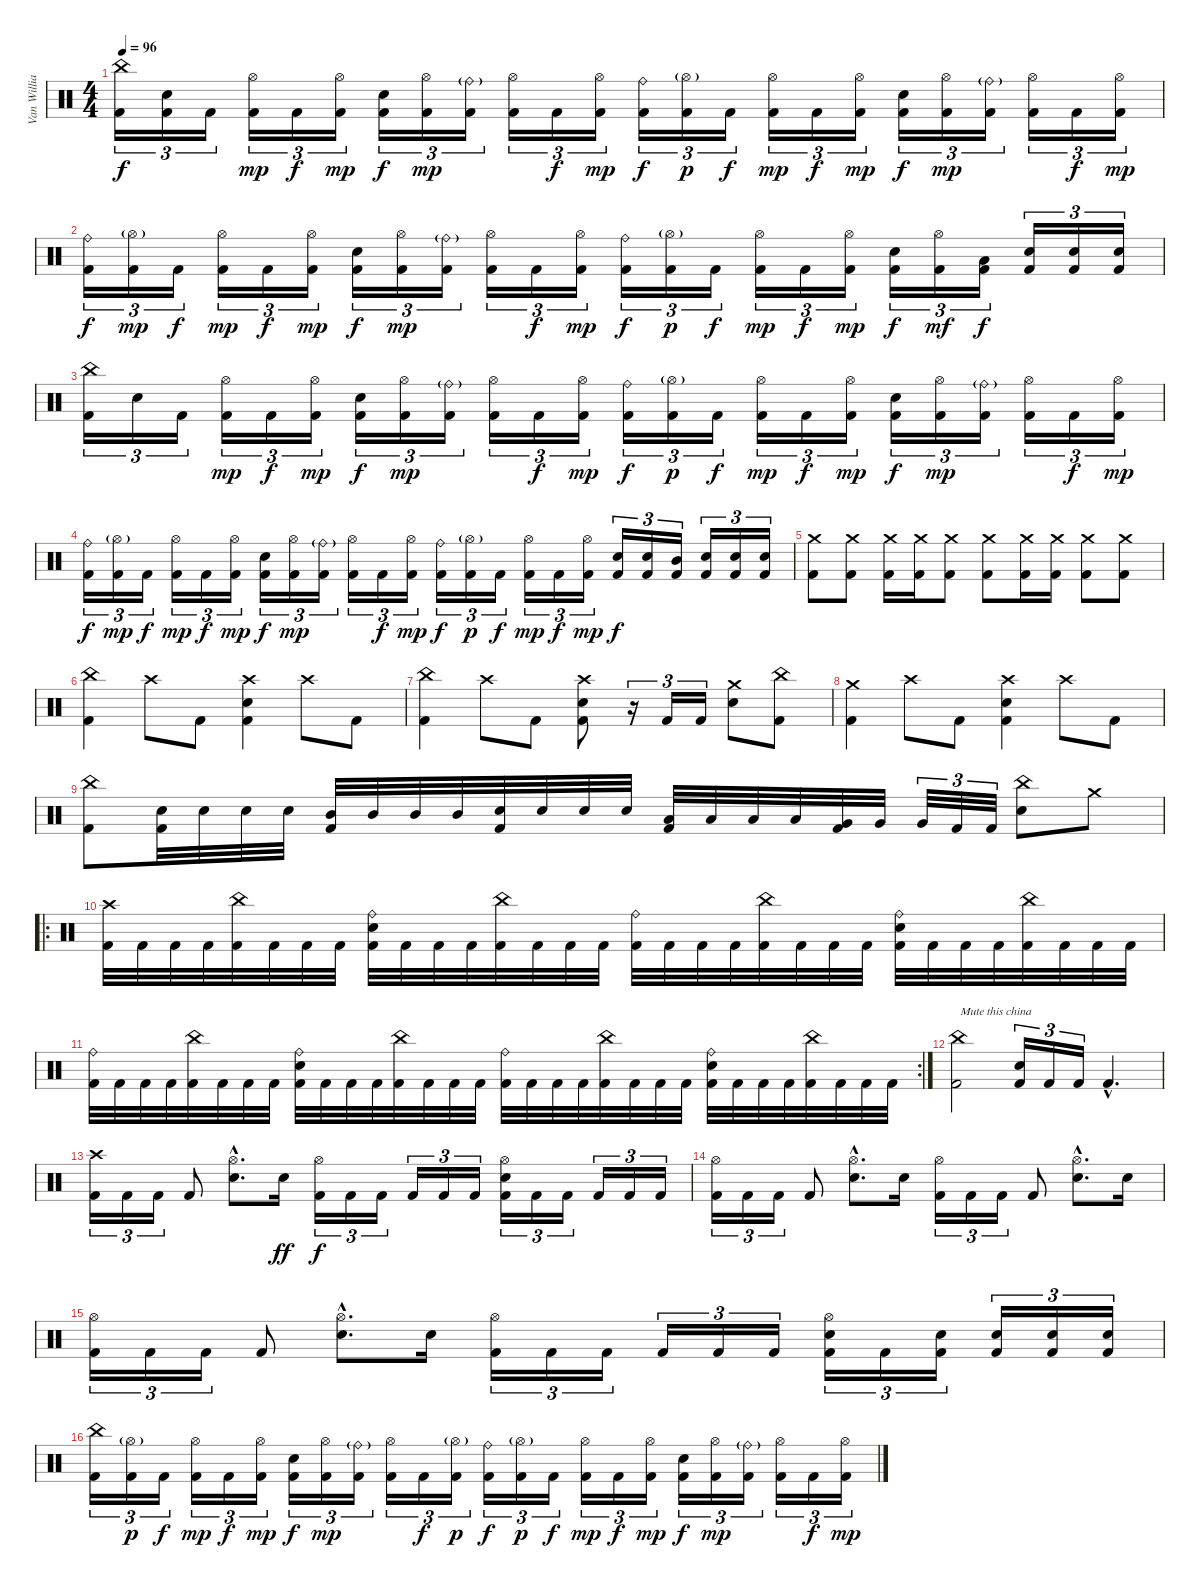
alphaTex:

\track ("Van Williams" "Van Willia") {instrument percussion}
\staff {score}
\articulation defaults
\ts (4 4)
\tempo 96
\clef neutral
\ks c
("China (hit)" "Kick (hit) 2").16{tu (3 2) dy f} ("Electric Snare (hit)" "Kick (hit) 2").16{tu (3 2)} "Kick (hit) 2".16{tu (3 2)} ("Hi-Hat (open)" "Kick (hit) 2").16{tu (3 2) dy mp} "Kick (hit) 2".16{tu (3 2) dy f} ("Hi-Hat (open)" "Kick (hit) 2").16{tu (3 2) dy mp} ("Electric Snare (hit)" "Kick (hit) 2").16{tu (3 2) dy f} ("Hi-Hat (open)" "Kick (hit) 2").16{tu (3 2) dy mp} ("Ride (bell)"{g} "Kick (hit) 2").16{tu (3 2)} ("Hi-Hat (open)" "Kick (hit) 2").16{tu (3 2)} "Kick (hit) 2".16{tu (3 2) dy f} ("Hi-Hat (open)" "Kick (hit) 2").16{tu (3 2) dy mp} ("Ride (bell)" "Kick (hit) 2").16{tu (3 2) dy f} ("Hi-Hat (open)"{g} "Kick (hit) 2").16{tu (3 2) dy p} "Kick (hit) 2".16{tu (3 2) dy f} ("Hi-Hat (open)" "Kick (hit) 2").16{tu (3 2) dy mp} "Kick (hit) 2".16{tu (3 2) dy f} ("Hi-Hat (open)" "Kick (hit) 2").16{tu (3 2) dy mp} ("Electric Snare (hit)" "Kick (hit) 2").16{tu (3 2) dy f} ("Hi-Hat (open)" "Kick (hit) 2").16{tu (3 2) dy mp} ("Ride (bell)"{g} "Kick (hit) 2").16{tu (3 2)} ("Hi-Hat (open)" "Kick (hit) 2").16{tu (3 2)} "Kick (hit) 2".16{tu (3 2) dy f} ("Hi-Hat (open)" "Kick (hit) 2").16{tu (3 2) dy mp} |
("Ride (bell)" "Kick (hit) 2").16{tu (3 2) dy f} ("Hi-Hat (open)"{g} "Kick (hit) 2").16{tu (3 2) dy mp} "Kick (hit) 2".16{tu (3 2) dy f} ("Hi-Hat (open)" "Kick (hit) 2").16{tu (3 2) dy mp} "Kick (hit) 2".16{tu (3 2) dy f} ("Hi-Hat (open)" "Kick (hit) 2").16{tu (3 2) dy mp} ("Electric Snare (hit)" "Kick (hit) 2").16{tu (3 2) dy f} ("Hi-Hat (open)" "Kick (hit) 2").16{tu (3 2) dy mp} ("Ride (bell)"{g} "Kick (hit) 2").16{tu (3 2)} ("Hi-Hat (open)" "Kick (hit) 2").16{tu (3 2)} "Kick (hit) 2".16{tu (3 2) dy f} ("Hi-Hat (open)" "Kick (hit) 2").16{tu (3 2) dy mp} ("Ride (bell)" "Kick (hit) 2").16{tu (3 2) dy f} ("Hi-Hat (open)"{g} "Kick (hit) 2").16{tu (3 2) dy p} "Kick (hit) 2".16{tu (3 2) dy f} ("Hi-Hat (open)" "Kick (hit) 2").16{tu (3 2) dy mp} "Kick (hit) 2".16{tu (3 2) dy f} ("Hi-Hat (open)" "Kick (hit) 2").16{tu (3 2) dy mp} ("Electric Snare (hit)" "Kick (hit) 2").16{tu (3 2) dy f} ("Hi-Hat (open)" "Kick (hit) 2").16{tu (3 2) dy mf} ("Low Tom (hit)" "Kick (hit) 2").16{tu (3 2) dy f} ("Electric Snare (hit)" "Kick (hit) 2").16{tu (3 2)} ("Electric Snare (hit)" "Kick (hit) 2").16{tu (3 2)} ("Electric Snare (hit)" "Kick (hit) 2").16{tu (3 2)} |
("China (hit)" "Kick (hit) 2").16{tu (3 2)} "Electric Snare (hit)".16{tu (3 2)} "Kick (hit) 2".16{tu (3 2)} ("Hi-Hat (open)" "Kick (hit) 2").16{tu (3 2) dy mp} "Kick (hit) 2".16{tu (3 2) dy f} ("Hi-Hat (open)" "Kick (hit) 2").16{tu (3 2) dy mp} ("Electric Snare (hit)" "Kick (hit) 2").16{tu (3 2) dy f} ("Hi-Hat (open)" "Kick (hit) 2").16{tu (3 2) dy mp} ("Ride (bell)"{g} "Kick (hit) 2").16{tu (3 2)} ("Hi-Hat (open)" "Kick (hit) 2").16{tu (3 2)} "Kick (hit) 2".16{tu (3 2) dy f} ("Hi-Hat (open)" "Kick (hit) 2").16{tu (3 2) dy mp} ("Ride (bell)" "Kick (hit) 2").16{tu (3 2) dy f} ("Hi-Hat (open)"{g} "Kick (hit) 2").16{tu (3 2) dy p} "Kick (hit) 2".16{tu (3 2) dy f} ("Hi-Hat (open)" "Kick (hit) 2").16{tu (3 2) dy mp} "Kick (hit) 2".16{tu (3 2) dy f} ("Hi-Hat (open)" "Kick (hit) 2").16{tu (3 2) dy mp} ("Electric Snare (hit)" "Kick (hit) 2").16{tu (3 2) dy f} ("Hi-Hat (open)" "Kick (hit) 2").16{tu (3 2) dy mp} ("Ride (bell)"{g} "Kick (hit) 2").16{tu (3 2)} ("Hi-Hat (open)" "Kick (hit) 2").16{tu (3 2)} "Kick (hit) 2".16{tu (3 2) dy f} ("Hi-Hat (open)" "Kick (hit) 2").16{tu (3 2) dy mp} |
("Ride (bell)" "Kick (hit) 2").16{tu (3 2) dy f} ("Hi-Hat (open)"{g} "Kick (hit) 2").16{tu (3 2) dy mp} "Kick (hit) 2".16{tu (3 2) dy f} ("Hi-Hat (open)" "Kick (hit) 2").16{tu (3 2) dy mp} "Kick (hit) 2".16{tu (3 2) dy f} ("Hi-Hat (open)" "Kick (hit) 2").16{tu (3 2) dy mp} ("Electric Snare (hit)" "Kick (hit) 2").16{tu (3 2) dy f} ("Hi-Hat (open)" "Kick (hit) 2").16{tu (3 2) dy mp} ("Ride (bell)"{g} "Kick (hit) 2").16{tu (3 2)} ("Hi-Hat (open)" "Kick (hit) 2").16{tu (3 2)} "Kick (hit) 2".16{tu (3 2) dy f} ("Hi-Hat (open)" "Kick (hit) 2").16{tu (3 2) dy mp} ("Ride (bell)" "Kick (hit) 2").16{tu (3 2) dy f} ("Hi-Hat (open)"{g} "Kick (hit) 2").16{tu (3 2) dy p} "Kick (hit) 2".16{tu (3 2) dy f} ("Hi-Hat (open)" "Kick (hit) 2").16{tu (3 2) dy mp} "Kick (hit) 2".16{tu (3 2) dy f} ("Hi-Hat (open)" "Kick (hit) 2").16{tu (3 2) dy mp} ("Electric Snare (hit)" "Kick (hit) 2").16{tu (3 2) dy f} ("Electric Snare (hit)" "Kick (hit) 2").16{tu (3 2)} ("Mid Tom (hit)" "Kick (hit) 2").16{tu (3 2)} ("Electric Snare (hit)" "Kick (hit) 2").16{tu (3 2)} ("Electric Snare (hit)" "Kick (hit) 2").16{tu (3 2)} ("Electric Snare (hit)" "Kick (hit) 2").16{tu (3 2)} |
\section ("" "")
("Crash medium (hit)" "Kick (hit) 2").8 ("Crash medium (hit)" "Kick (hit) 2").8 ("Crash medium (hit)" "Kick (hit) 2").16 ("Crash medium (hit)" "Kick (hit) 2").16 ("Crash medium (hit)" "Kick (hit) 2").8 ("Crash medium (hit)" "Kick (hit) 2").8 ("Crash medium (hit)" "Kick (hit) 2").16 ("Crash medium (hit)" "Kick (hit) 2").16 ("Crash medium (hit)" "Kick (hit) 2").8 ("Crash medium (hit)" "Kick (hit) 2").8 |
("China (hit)" "Kick (hit) 2").4 "Crash high (hit)".8 "Kick (hit) 2".8 ("Crash high (hit)" "Electric Snare (hit)" "Kick (hit) 2").4 "Crash high (hit)".8 "Kick (hit) 2".8 |
("China (hit)" "Kick (hit) 2").4 "Crash high (hit)".8 "Kick (hit) 2".8 ("Crash high (hit)" "Electric Snare (hit)" "Kick (hit) 2").8 r.16{tu (3 2)} "Kick (hit) 2".16{tu (3 2)} "Kick (hit) 2".16{tu (3 2)} ("Crash medium (hit)" "Electric Snare (hit)").8 ("China (hit)" "Kick (hit) 2").8 |
("Crash medium (hit)" "Kick (hit) 2").4 "Crash high (hit)".8 "Kick (hit) 2".8 ("Crash high (hit)" "Electric Snare (hit)" "Kick (hit) 2").4 "Crash high (hit)".8 "Kick (hit) 2".8 |
("China (hit)" "Kick (hit) 2").8 ("Electric Snare (hit)" "Kick (hit) 2").32 "Electric Snare (hit)".32 "Electric Snare (hit)".32 "Electric Snare (hit)".32 ("Mid Tom (hit)" "Kick (hit) 2").32 "Mid Tom (hit)".32 "Mid Tom (hit)".32 "Mid Tom (hit)".32 ("Electric Snare (hit)" "Kick (hit) 2").32 "Electric Snare (hit)".32 "Electric Snare (hit)".32 "Electric Snare (hit)".32 ("Low Tom (hit)" "Kick (hit) 2").32 "Low Tom (hit)".32 "Low Tom (hit)".32 "Low Tom (hit)".32 ("Very Low Tom (hit)" "Kick (hit) 2").32 "Very Low Tom (hit)".32 "Very Low Tom (hit)".32{tu (3 2)} "Kick (hit) 2".32{tu (3 2)} "Kick (hit) 2".32{tu (3 2)} ("China (hit)" "Electric Snare (hit)").8 "Crash medium (hit)".8 |
\ro
\section ("" "")
("Crash high (hit)" "Kick (hit) 2").32 "Kick (hit) 2".32 "Kick (hit) 2".32 "Kick (hit) 2".32 ("China (hit)" "Kick (hit) 2").32 "Kick (hit) 2".32 "Kick (hit) 2".32 "Kick (hit) 2".32 ("Ride (bell)" "Electric Snare (hit)" "Kick (hit) 2").32 "Kick (hit) 2".32 "Kick (hit) 2".32 "Kick (hit) 2".32 ("China (hit)" "Kick (hit) 2").32 "Kick (hit) 2".32 "Kick (hit) 2".32 "Kick (hit) 2".32 ("Ride (bell)" "Kick (hit) 2").32 "Kick (hit) 2".32 "Kick (hit) 2".32 "Kick (hit) 2".32 ("China (hit)" "Kick (hit) 2").32 "Kick (hit) 2".32 "Kick (hit) 2".32 "Kick (hit) 2".32 ("Ride (bell)" "Electric Snare (hit)" "Kick (hit) 2").32 "Kick (hit) 2".32 "Kick (hit) 2".32 "Kick (hit) 2".32 ("China (hit)" "Kick (hit) 2").32 "Kick (hit) 2".32 "Kick (hit) 2".32 "Kick (hit) 2".32 |
\rc 2
("Ride (bell)" "Kick (hit) 2").32 "Kick (hit) 2".32 "Kick (hit) 2".32 "Kick (hit) 2".32 ("China (hit)" "Kick (hit) 2").32 "Kick (hit) 2".32 "Kick (hit) 2".32 "Kick (hit) 2".32 ("Ride (bell)" "Electric Snare (hit)" "Kick (hit) 2").32 "Kick (hit) 2".32 "Kick (hit) 2".32 "Kick (hit) 2".32 ("China (hit)" "Kick (hit) 2").32 "Kick (hit) 2".32 "Kick (hit) 2".32 "Kick (hit) 2".32 ("Ride (bell)" "Kick (hit) 2").32 "Kick (hit) 2".32 "Kick (hit) 2".32 "Kick (hit) 2".32 ("China (hit)" "Kick (hit) 2").32 "Kick (hit) 2".32 "Kick (hit) 2".32 "Kick (hit) 2".32 ("Ride (bell)" "Electric Snare (hit)" "Kick (hit) 2").32 "Kick (hit) 2".32 "Kick (hit) 2".32 "Kick (hit) 2".32 ("China (hit)" "Kick (hit) 2").32 "Kick (hit) 2".32 "Kick (hit) 2".32 "Kick (hit) 2".32 |
\section ("" "")
("China (hit)" "Kick (hit) 2").2{txt "Mute this china"} ("Electric Snare (hit)" "Kick (hit) 2").16{tu (3 2)} "Kick (hit) 2".16{tu (3 2)} "Kick (hit) 2".16{tu (3 2)} "Kick (hit) 2"{hac}.4{d} |
("Crash high (hit)" "Kick (hit) 2").16{tu (3 2)} "Kick (hit) 2".16{tu (3 2)} "Kick (hit) 2".16{tu (3 2)} "Kick (hit) 2".8 ("Hi-Hat (open)"{hac} "Electric Snare (hit)"{hac}).8{d} "Electric Snare (hit)".16{dy ff} ("Hi-Hat (open)" "Kick (hit) 2").16{tu (3 2) dy f} "Kick (hit) 2".16{tu (3 2)} "Kick (hit) 2".16{tu (3 2)} "Kick (hit) 2".16{tu (3 2)} "Kick (hit) 2".16{tu (3 2)} "Kick (hit) 2".16{tu (3 2)} ("Hi-Hat (open)" "Electric Snare (hit)" "Kick (hit) 2").16{tu (3 2)} "Kick (hit) 2".16{tu (3 2)} "Kick (hit) 2".16{tu (3 2)} "Kick (hit) 2".16{tu (3 2)} "Kick (hit) 2".16{tu (3 2)} "Kick (hit) 2".16{tu (3 2)} |
("Hi-Hat (open)" "Kick (hit) 2").16{tu (3 2)} "Kick (hit) 2".16{tu (3 2)} "Kick (hit) 2".16{tu (3 2)} "Kick (hit) 2".8 ("Hi-Hat (open)"{hac} "Electric Snare (hit)"{hac}).8{d} "Electric Snare (hit)".16 ("Hi-Hat (open)" "Kick (hit) 2").16{tu (3 2)} "Kick (hit) 2".16{tu (3 2)} "Kick (hit) 2".16{tu (3 2)} "Kick (hit) 2".8 ("Hi-Hat (open)"{hac} "Electric Snare (hit)"{hac}).8{d} "Electric Snare (hit)".16 |
("Hi-Hat (open)" "Kick (hit) 2").16{tu (3 2)} "Kick (hit) 2".16{tu (3 2)} "Kick (hit) 2".16{tu (3 2)} "Kick (hit) 2".8 ("Hi-Hat (open)"{hac} "Electric Snare (hit)"{hac}).8{d} "Electric Snare (hit)".16 ("Hi-Hat (open)" "Kick (hit) 2").16{tu (3 2)} "Kick (hit) 2".16{tu (3 2)} "Kick (hit) 2".16{tu (3 2)} "Kick (hit) 2".16{tu (3 2)} "Kick (hit) 2".16{tu (3 2)} "Kick (hit) 2".16{tu (3 2)} ("Hi-Hat (open)" "Electric Snare (hit)" "Kick (hit) 2").16{tu (3 2)} "Kick (hit) 2".16{tu (3 2)} ("Electric Snare (hit)" "Kick (hit) 2").16{tu (3 2)} ("Electric Snare (hit)" "Kick (hit) 2").16{tu (3 2)} ("Electric Snare (hit)" "Kick (hit) 2").16{tu (3 2)} ("Electric Snare (hit)" "Kick (hit) 2").16{tu (3 2)} |
\section ("" "")
("China (hit)" "Kick (hit) 2").16{tu (3 2)} ("Hi-Hat (open)"{g} "Kick (hit) 2").16{tu (3 2) dy p} "Kick (hit) 2".16{tu (3 2) dy f} ("Hi-Hat (open)" "Kick (hit) 2").16{tu (3 2) dy mp} "Kick (hit) 2".16{tu (3 2) dy f} ("Hi-Hat (open)" "Kick (hit) 2").16{tu (3 2) dy mp} ("Electric Snare (hit)" "Kick (hit) 2").16{tu (3 2) dy f} ("Hi-Hat (open)" "Kick (hit) 2").16{tu (3 2) dy mp} ("Ride (bell)"{g} "Kick (hit) 2").16{tu (3 2)} ("Hi-Hat (open)" "Kick (hit) 2").16{tu (3 2)} "Kick (hit) 2".16{tu (3 2) dy f} ("Hi-Hat (open)"{g} "Kick (hit) 2").16{tu (3 2) dy p} ("Ride (bell)" "Kick (hit) 2").16{tu (3 2) dy f} ("Hi-Hat (open)"{g} "Kick (hit) 2").16{tu (3 2) dy p} "Kick (hit) 2".16{tu (3 2) dy f} ("Hi-Hat (open)" "Kick (hit) 2").16{tu (3 2) dy mp} "Kick (hit) 2".16{tu (3 2) dy f} ("Hi-Hat (open)" "Kick (hit) 2").16{tu (3 2) dy mp} ("Electric Snare (hit)" "Kick (hit) 2").16{tu (3 2) dy f} ("Hi-Hat (open)" "Kick (hit) 2").16{tu (3 2) dy mp} ("Ride (bell)"{g} "Kick (hit) 2").16{tu (3 2)} ("Hi-Hat (open)" "Kick (hit) 2").16{tu (3 2)} "Kick (hit) 2".16{tu (3 2) dy f} ("Hi-Hat (open)" "Kick (hit) 2").16{tu (3 2) dy mp}
